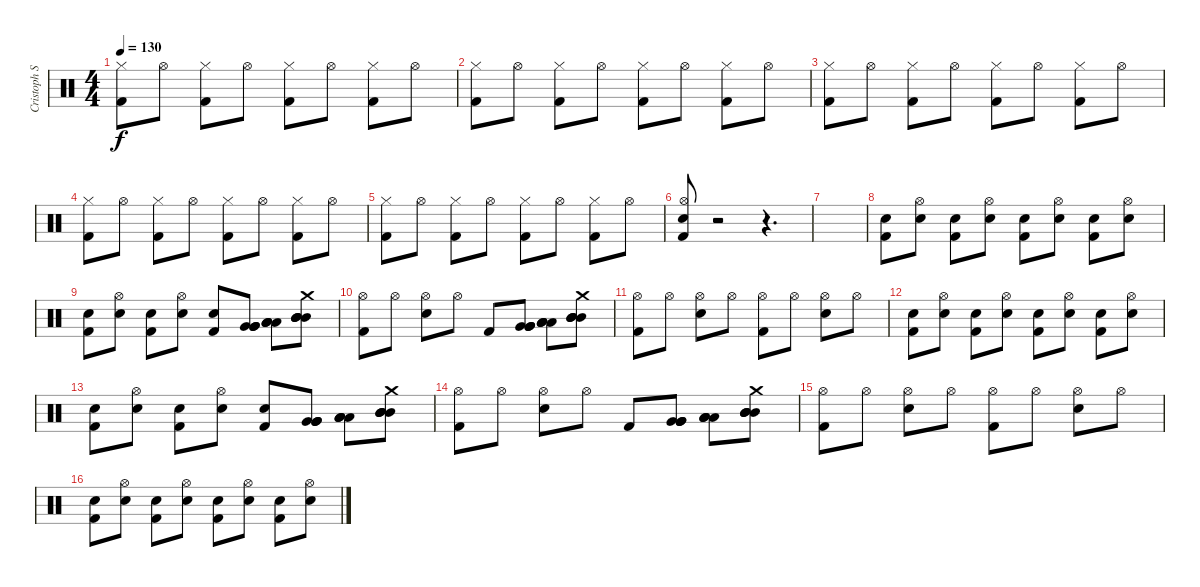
\track ("Cristoph Schneider" "Cristoph S") {instrument percussion}
\staff {score}
\articulation defaults
\ts (4 4)
\tempo 130
\clef neutral
\ks c
("Hi-Hat (closed)" "Kick (hit) 2").8{dy f} "Hi-Hat (open)".8 ("Hi-Hat (closed)" "Kick (hit) 2").8 "Hi-Hat (open)".8 ("Hi-Hat (closed)" "Kick (hit) 2").8 "Hi-Hat (open)".8 ("Hi-Hat (closed)" "Kick (hit) 2").8 "Hi-Hat (open)".8 |
("Hi-Hat (closed)" "Kick (hit) 2").8 "Hi-Hat (open)".8 ("Hi-Hat (closed)" "Kick (hit) 2").8 "Hi-Hat (open)".8 ("Hi-Hat (closed)" "Kick (hit) 2").8 "Hi-Hat (open)".8 ("Hi-Hat (closed)" "Kick (hit) 2").8 "Hi-Hat (open)".8 |
("Hi-Hat (closed)" "Kick (hit) 2").8 "Hi-Hat (open)".8 ("Hi-Hat (closed)" "Kick (hit) 2").8 "Hi-Hat (open)".8 ("Hi-Hat (closed)" "Kick (hit) 2").8 "Hi-Hat (open)".8 ("Hi-Hat (closed)" "Kick (hit) 2").8 "Hi-Hat (open)".8 |
("Hi-Hat (closed)" "Kick (hit) 2").8 "Hi-Hat (open)".8 ("Hi-Hat (closed)" "Kick (hit) 2").8 "Hi-Hat (open)".8 ("Hi-Hat (closed)" "Kick (hit) 2").8 "Hi-Hat (open)".8 ("Hi-Hat (closed)" "Kick (hit) 2").8 "Hi-Hat (open)".8 |
("Hi-Hat (closed)" "Kick (hit) 2").8 "Hi-Hat (open)".8 ("Hi-Hat (closed)" "Kick (hit) 2").8 "Hi-Hat (open)".8 ("Hi-Hat (closed)" "Kick (hit) 2").8 "Hi-Hat (open)".8 ("Hi-Hat (closed)" "Kick (hit) 2").8 "Hi-Hat (open)".8 |
("Electric Snare (hit)" "Kick (hit) 2" "Hi-Hat (open)").8 r.2 r.4{d} |
|
("Electric Snare (hit)" "Kick (hit) 2").8 ("Hi-Hat (open)" "Electric Snare (hit)").8 ("Electric Snare (hit)" "Kick (hit) 2").8 ("Hi-Hat (open)" "Electric Snare (hit)").8 ("Electric Snare (hit)" "Kick (hit) 2").8 ("Hi-Hat (open)" "Electric Snare (hit)").8 ("Electric Snare (hit)" "Kick (hit) 2").8 ("Hi-Hat (open)" "Electric Snare (hit)").8 |
("Electric Snare (hit)" "Kick (hit) 2").8 ("Hi-Hat (open)" "Electric Snare (hit)").8 ("Electric Snare (hit)" "Kick (hit) 2").8 ("Hi-Hat (open)" "Electric Snare (hit)").8 ("Electric Snare (hit)" "Kick (hit) 2").8 ("Very Low Tom (hit)" "Very Low Tom (hit)" "Very Low Tom (hit)" "Very Low Tom (hit)").8 ("Low Floor Tom (hit)" "Low Floor Tom (hit)" "Low Floor Tom (hit)" "Low Floor Tom (hit)").8 ("Mid Tom (hit)" "Mid Tom (hit)" "Mid Tom (hit)" "Mid Tom (hit)" "Crash medium (hit)").8 |
("Hi-Hat (open)" "Kick (hit) 2").8 "Hi-Hat (open)".8 ("Hi-Hat (open)" "Electric Snare (hit)").8 "Hi-Hat (open)".8 "Kick (hit) 2".8 ("Very Low Tom (hit)" "Very Low Tom (hit)" "Very Low Tom (hit)" "Very Low Tom (hit)").8 ("Low Floor Tom (hit)" "Low Floor Tom (hit)" "Low Floor Tom (hit)" "Low Floor Tom (hit)").8 ("Mid Tom (hit)" "Mid Tom (hit)" "Mid Tom (hit)" "Mid Tom (hit)" "Crash medium (hit)").8 |
("Hi-Hat (open)" "Kick (hit) 2").8 "Hi-Hat (open)".8 ("Hi-Hat (open)" "Electric Snare (hit)").8 "Hi-Hat (open)".8 ("Hi-Hat (open)" "Kick (hit) 2").8 "Hi-Hat (open)".8 ("Hi-Hat (open)" "Electric Snare (hit)").8 "Hi-Hat (open)".8 |
("Electric Snare (hit)" "Kick (hit) 2").8 ("Hi-Hat (open)" "Electric Snare (hit)").8 ("Electric Snare (hit)" "Kick (hit) 2").8 ("Hi-Hat (open)" "Electric Snare (hit)").8 ("Electric Snare (hit)" "Kick (hit) 2").8 ("Hi-Hat (open)" "Electric Snare (hit)").8 ("Electric Snare (hit)" "Kick (hit) 2").8 ("Hi-Hat (open)" "Electric Snare (hit)").8 |
("Electric Snare (hit)" "Kick (hit) 2").8 ("Hi-Hat (open)" "Electric Snare (hit)").8 ("Electric Snare (hit)" "Kick (hit) 2").8 ("Hi-Hat (open)" "Electric Snare (hit)").8 ("Electric Snare (hit)" "Kick (hit) 2").8 ("Very Low Tom (hit)" "Very Low Tom (hit)" "Very Low Tom (hit)" "Very Low Tom (hit)").8 ("Low Floor Tom (hit)" "Low Floor Tom (hit)" "Low Floor Tom (hit)" "Low Floor Tom (hit)").8 ("Mid Tom (hit)" "Mid Tom (hit)" "Mid Tom (hit)" "Mid Tom (hit)" "Crash medium (hit)").8 |
("Hi-Hat (open)" "Kick (hit) 2").8 "Hi-Hat (open)".8 ("Hi-Hat (open)" "Electric Snare (hit)").8 "Hi-Hat (open)".8 "Kick (hit) 2".8 ("Very Low Tom (hit)" "Very Low Tom (hit)" "Very Low Tom (hit)" "Very Low Tom (hit)").8 ("Low Floor Tom (hit)" "Low Floor Tom (hit)" "Low Floor Tom (hit)" "Low Floor Tom (hit)").8 ("Mid Tom (hit)" "Mid Tom (hit)" "Mid Tom (hit)" "Mid Tom (hit)" "Crash medium (hit)").8 |
("Hi-Hat (open)" "Kick (hit) 2").8 "Hi-Hat (open)".8 ("Hi-Hat (open)" "Electric Snare (hit)").8 "Hi-Hat (open)".8 ("Hi-Hat (open)" "Kick (hit) 2").8 "Hi-Hat (open)".8 ("Hi-Hat (open)" "Electric Snare (hit)").8 "Hi-Hat (open)".8 |
("Electric Snare (hit)" "Kick (hit) 2").8 ("Hi-Hat (open)" "Electric Snare (hit)").8 ("Electric Snare (hit)" "Kick (hit) 2").8 ("Hi-Hat (open)" "Electric Snare (hit)").8 ("Electric Snare (hit)" "Kick (hit) 2").8 ("Hi-Hat (open)" "Electric Snare (hit)").8 ("Electric Snare (hit)" "Kick (hit) 2").8 ("Hi-Hat (open)" "Electric Snare (hit)").8
